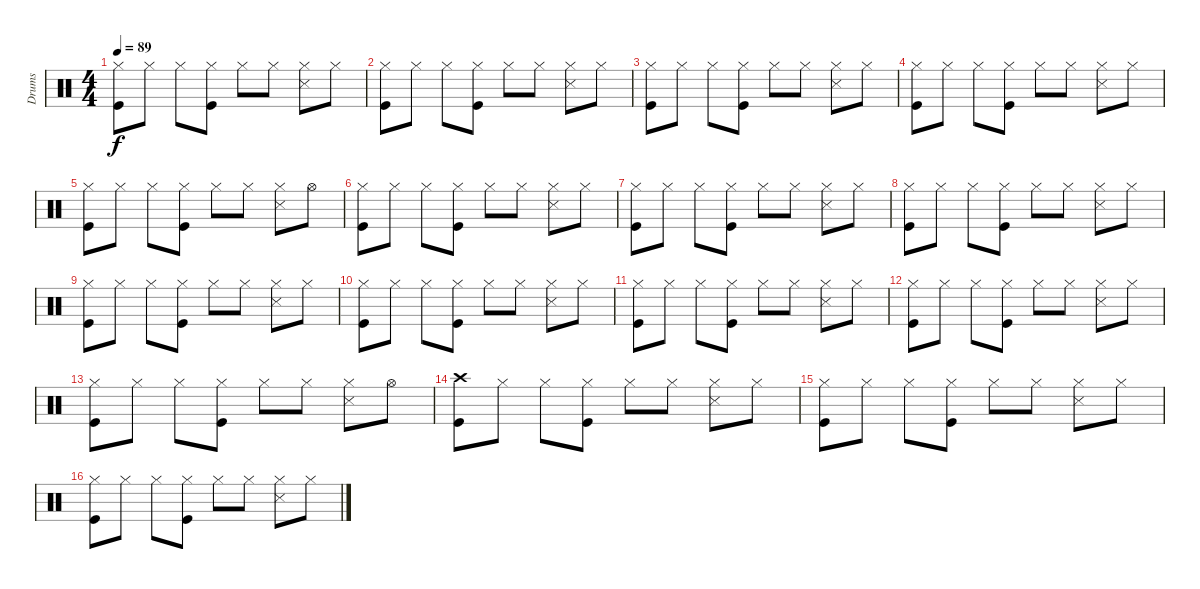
\track ("Drums" "Drums") {instrument percussion}
\staff {score}
\articulation defaults
\ts (4 4)
\tempo 89
\clef neutral
\ks c
("Hi-Hat (closed)" "Kick (hit)").8{dy f} "Hi-Hat (closed)".8 "Hi-Hat (closed)".8 ("Hi-Hat (closed)" "Kick (hit)").8 "Hi-Hat (closed)".8 "Hi-Hat (closed)".8 ("Hi-Hat (closed)" "Snare (side stick) 3").8 "Hi-Hat (closed)".8 |
("Hi-Hat (closed)" "Kick (hit)").8 "Hi-Hat (closed)".8 "Hi-Hat (closed)".8 ("Hi-Hat (closed)" "Kick (hit)").8 "Hi-Hat (closed)".8 "Hi-Hat (closed)".8 ("Hi-Hat (closed)" "Snare (side stick) 3").8 "Hi-Hat (closed)".8 |
("Hi-Hat (closed)" "Kick (hit)").8 "Hi-Hat (closed)".8 "Hi-Hat (closed)".8 ("Hi-Hat (closed)" "Kick (hit)").8 "Hi-Hat (closed)".8 "Hi-Hat (closed)".8 ("Hi-Hat (closed)" "Snare (side stick) 3").8 "Hi-Hat (closed)".8 |
("Hi-Hat (closed)" "Kick (hit)").8 "Hi-Hat (closed)".8 "Hi-Hat (closed)".8 ("Hi-Hat (closed)" "Kick (hit)").8 "Hi-Hat (closed)".8 "Hi-Hat (closed)".8 ("Hi-Hat (closed)" "Snare (side stick) 3").8 "Hi-Hat (closed)".8 |
("Hi-Hat (closed)" "Kick (hit)").8 "Hi-Hat (closed)".8 "Hi-Hat (closed)".8 ("Hi-Hat (closed)" "Kick (hit)").8 "Hi-Hat (closed)".8 "Hi-Hat (closed)".8 ("Hi-Hat (closed)" "Snare (side stick) 3").8 "Hi-Hat (open)".8 |
("Hi-Hat (closed)" "Kick (hit)").8 "Hi-Hat (closed)".8 "Hi-Hat (closed)".8 ("Hi-Hat (closed)" "Kick (hit)").8 "Hi-Hat (closed)".8 "Hi-Hat (closed)".8 ("Hi-Hat (closed)" "Snare (side stick) 3").8 "Hi-Hat (closed)".8 |
("Hi-Hat (closed)" "Kick (hit)").8 "Hi-Hat (closed)".8 "Hi-Hat (closed)".8 ("Hi-Hat (closed)" "Kick (hit)").8 "Hi-Hat (closed)".8 "Hi-Hat (closed)".8 ("Hi-Hat (closed)" "Snare (side stick) 3").8 "Hi-Hat (closed)".8 |
("Hi-Hat (closed)" "Kick (hit)").8 "Hi-Hat (closed)".8 "Hi-Hat (closed)".8 ("Hi-Hat (closed)" "Kick (hit)").8 "Hi-Hat (closed)".8 "Hi-Hat (closed)".8 ("Hi-Hat (closed)" "Snare (side stick) 3").8 "Hi-Hat (closed)".8 |
("Hi-Hat (closed)" "Kick (hit)").8 "Hi-Hat (closed)".8 "Hi-Hat (closed)".8 ("Hi-Hat (closed)" "Kick (hit)").8 "Hi-Hat (closed)".8 "Hi-Hat (closed)".8 ("Hi-Hat (closed)" "Snare (side stick) 3").8 "Hi-Hat (closed)".8 |
("Hi-Hat (closed)" "Kick (hit)").8 "Hi-Hat (closed)".8 "Hi-Hat (closed)".8 ("Hi-Hat (closed)" "Kick (hit)").8 "Hi-Hat (closed)".8 "Hi-Hat (closed)".8 ("Hi-Hat (closed)" "Snare (side stick) 3").8 "Hi-Hat (closed)".8 |
("Hi-Hat (closed)" "Kick (hit)").8 "Hi-Hat (closed)".8 "Hi-Hat (closed)".8 ("Hi-Hat (closed)" "Kick (hit)").8 "Hi-Hat (closed)".8 "Hi-Hat (closed)".8 ("Hi-Hat (closed)" "Snare (side stick) 3").8 "Hi-Hat (closed)".8 |
("Hi-Hat (closed)" "Kick (hit)").8 "Hi-Hat (closed)".8 "Hi-Hat (closed)".8 ("Hi-Hat (closed)" "Kick (hit)").8 "Hi-Hat (closed)".8 "Hi-Hat (closed)".8 ("Hi-Hat (closed)" "Snare (side stick) 3").8 "Hi-Hat (closed)".8 |
("Hi-Hat (closed)" "Kick (hit)").8 "Hi-Hat (closed)".8 "Hi-Hat (closed)".8 ("Hi-Hat (closed)" "Kick (hit)").8 "Hi-Hat (closed)".8 "Hi-Hat (closed)".8 ("Hi-Hat (closed)" "Snare (side stick) 3").8 "Hi-Hat (open)".8 |
("Crash high (hit)" "Kick (hit)").8 "Hi-Hat (closed)".8 "Hi-Hat (closed)".8 ("Hi-Hat (closed)" "Kick (hit)").8 "Hi-Hat (closed)".8 "Hi-Hat (closed)".8 ("Hi-Hat (closed)" "Snare (side stick) 3").8 "Hi-Hat (closed)".8 |
("Hi-Hat (closed)" "Kick (hit)").8 "Hi-Hat (closed)".8 "Hi-Hat (closed)".8 ("Hi-Hat (closed)" "Kick (hit)").8 "Hi-Hat (closed)".8 "Hi-Hat (closed)".8 ("Hi-Hat (closed)" "Snare (side stick) 3").8 "Hi-Hat (closed)".8 |
("Hi-Hat (closed)" "Kick (hit)").8 "Hi-Hat (closed)".8 "Hi-Hat (closed)".8 ("Hi-Hat (closed)" "Kick (hit)").8 "Hi-Hat (closed)".8 "Hi-Hat (closed)".8 ("Hi-Hat (closed)" "Snare (side stick) 3").8 "Hi-Hat (closed)".8
